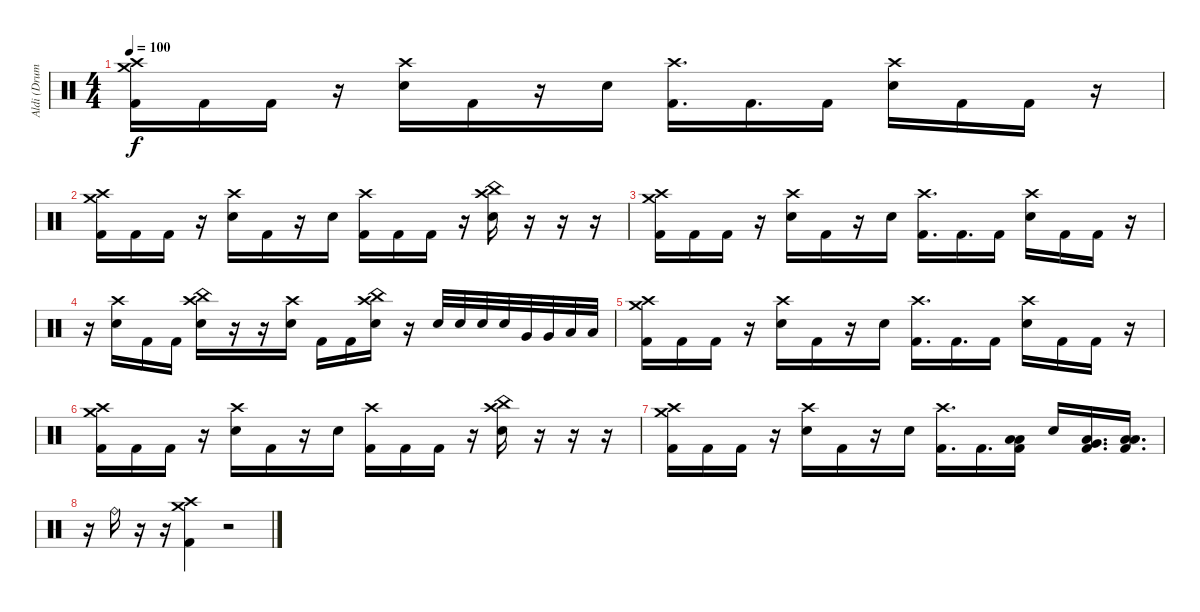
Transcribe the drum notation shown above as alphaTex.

\track ("Aldi (Drum)" "Aldi (Drum") {instrument percussion}
\staff {score}
\articulation defaults
\ts (4 4)
\tempo 100
\clef neutral
\ks c
("Crash medium (hit)" "Crash high (hit)" "Kick (hit) 2").16{dy f} "Kick (hit) 2".16 "Kick (hit) 2".16 r.16 ("Crash high (hit)" "Electric Snare (hit)").16 "Kick (hit) 2".16 r.16 "Electric Snare (hit)".16 ("Crash high (hit)" "Kick (hit) 2").16{d} "Kick (hit) 2".16{d} "Kick (hit) 2".16 ("Crash high (hit)" "Electric Snare (hit)").16 "Kick (hit) 2".16 "Kick (hit) 2".16 r.16 |
("Crash medium (hit)" "Crash high (hit)" "Kick (hit) 2").16 "Kick (hit) 2".16 "Kick (hit) 2".16 r.16 ("Crash high (hit)" "Electric Snare (hit)").16 "Kick (hit) 2".16 r.16 "Electric Snare (hit)".16 ("Crash high (hit)" "Kick (hit) 2").16 "Kick (hit) 2".16 "Kick (hit) 2".16 r.16 ("China (hit)" "Crash high (hit)" "Electric Snare (hit)").16 r.16 r.16 r.16 |
("Crash medium (hit)" "Crash high (hit)" "Kick (hit) 2").16 "Kick (hit) 2".16 "Kick (hit) 2".16 r.16 ("Crash high (hit)" "Electric Snare (hit)").16 "Kick (hit) 2".16 r.16 "Electric Snare (hit)".16 ("Crash high (hit)" "Kick (hit) 2").16{d} "Kick (hit) 2".16{d} "Kick (hit) 2".16 ("Crash high (hit)" "Electric Snare (hit)").16 "Kick (hit) 2".16 "Kick (hit) 2".16 r.16 |
r.16 ("Crash high (hit)" "Electric Snare (hit)").16 "Kick (hit) 2".16 "Kick (hit) 2".16 ("China (hit)" "Crash high (hit)" "Electric Snare (hit)").16 r.16 r.16 ("Crash high (hit)" "Electric Snare (hit)").16 "Kick (hit) 2".16 "Kick (hit) 2".16 ("China (hit)" "Crash high (hit)" "Electric Snare (hit)").16 r.16 "Electric Snare (hit)".32 "Electric Snare (hit)".32 "Electric Snare (hit)".32 "Electric Snare (hit)".32 "Very Low Tom (hit)".32 "Very Low Tom (hit)".32 "Low Floor Tom (hit)".32 "Low Floor Tom (hit)".32 |
("Crash medium (hit)" "Crash high (hit)" "Kick (hit) 2").16 "Kick (hit) 2".16 "Kick (hit) 2".16 r.16 ("Crash high (hit)" "Electric Snare (hit)").16 "Kick (hit) 2".16 r.16 "Electric Snare (hit)".16 ("Crash high (hit)" "Kick (hit) 2").16{d} "Kick (hit) 2".16{d} "Kick (hit) 2".16 ("Crash high (hit)" "Electric Snare (hit)").16 "Kick (hit) 2".16 "Kick (hit) 2".16 r.16 |
("Crash medium (hit)" "Crash high (hit)" "Kick (hit) 2").16 "Kick (hit) 2".16 "Kick (hit) 2".16 r.16 ("Crash high (hit)" "Electric Snare (hit)").16 "Kick (hit) 2".16 r.16 "Electric Snare (hit)".16 ("Crash high (hit)" "Kick (hit) 2").16 "Kick (hit) 2".16 "Kick (hit) 2".16 r.16 ("China (hit)" "Crash high (hit)" "Electric Snare (hit)").16 r.16 r.16 r.16 |
("Crash medium (hit)" "Crash high (hit)" "Kick (hit) 2").16 "Kick (hit) 2".16 "Kick (hit) 2".16 r.16 ("Crash high (hit)" "Electric Snare (hit)").16 "Kick (hit) 2".16 r.16 "Electric Snare (hit)".16 ("Crash high (hit)" "Kick (hit) 2").16{d} "Kick (hit) 2".16{d} ("Low Floor Tom (hit)" "Low Floor Tom (hit)" "Kick (hit) 2").16 "Electric Snare (hit)".16 ("Very Low Tom (hit)" "Low Floor Tom (hit)" "Kick (hit) 2").16{d} ("Low Floor Tom (hit)" "Low Floor Tom (hit)" "Kick (hit) 2").16{d} |
r.16 "Ride (bell)".16 r.16 r.16 ("Crash medium (hit)" "Crash high (hit)" "Kick (hit) 2").4 r.2
